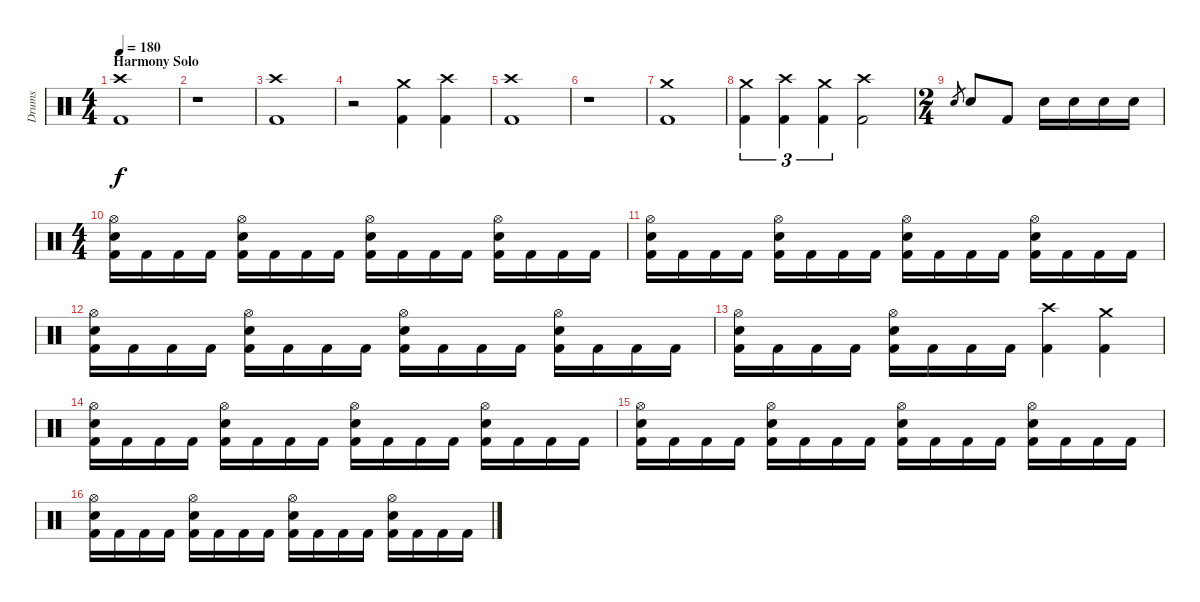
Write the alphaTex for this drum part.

\track ("Drums" "Drums") {instrument percussion}
\staff {score}
\articulation defaults
\ts (4 4)
\section ("" "Harmony Solo")
\tempo 180
\clef neutral
\ks c
("Crash high (hit)" "Kick (hit) 2").1{dy f} |
r.1 |
("Crash high (hit)" "Kick (hit) 2").1 |
r.2 ("Crash medium (hit)" "Kick (hit) 2").4 ("Crash high (hit)" "Kick (hit) 2").4 |
("Crash high (hit)" "Kick (hit) 2").1 |
r.1 |
("Crash medium (hit)" "Kick (hit) 2").1 |
("Crash medium (hit)" "Kick (hit) 2").4{tu (3 2)} ("Crash high (hit)" "Kick (hit) 2").4{tu (3 2)} ("Crash medium (hit)" "Kick (hit) 2").4{tu (3 2)} ("Crash high (hit)" "Kick (hit) 2").2 |
\ts (2 4)
"Electric Snare (hit)".8{gr} "Electric Snare (hit)".8 "Kick (hit) 2".8 "Electric Snare (hit)".16 "Electric Snare (hit)".16 "Electric Snare (hit)".16 "Electric Snare (hit)".16 |
\ts (4 4)
("Hi-Hat (open)" "Electric Snare (hit)" "Kick (hit) 2").16 "Kick (hit) 2".16 "Kick (hit) 2".16 "Kick (hit) 2".16 ("Hi-Hat (open)" "Electric Snare (hit)" "Kick (hit) 2").16 "Kick (hit) 2".16 "Kick (hit) 2".16 "Kick (hit) 2".16 ("Hi-Hat (open)" "Electric Snare (hit)" "Kick (hit) 2").16 "Kick (hit) 2".16 "Kick (hit) 2".16 "Kick (hit) 2".16 ("Hi-Hat (open)" "Electric Snare (hit)" "Kick (hit) 2").16 "Kick (hit) 2".16 "Kick (hit) 2".16 "Kick (hit) 2".16 |
("Hi-Hat (open)" "Electric Snare (hit)" "Kick (hit) 2").16 "Kick (hit) 2".16 "Kick (hit) 2".16 "Kick (hit) 2".16 ("Hi-Hat (open)" "Electric Snare (hit)" "Kick (hit) 2").16 "Kick (hit) 2".16 "Kick (hit) 2".16 "Kick (hit) 2".16 ("Hi-Hat (open)" "Electric Snare (hit)" "Kick (hit) 2").16 "Kick (hit) 2".16 "Kick (hit) 2".16 "Kick (hit) 2".16 ("Hi-Hat (open)" "Electric Snare (hit)" "Kick (hit) 2").16 "Kick (hit) 2".16 "Kick (hit) 2".16 "Kick (hit) 2".16 |
("Hi-Hat (open)" "Electric Snare (hit)" "Kick (hit) 2").16 "Kick (hit) 2".16 "Kick (hit) 2".16 "Kick (hit) 2".16 ("Hi-Hat (open)" "Electric Snare (hit)" "Kick (hit) 2").16 "Kick (hit) 2".16 "Kick (hit) 2".16 "Kick (hit) 2".16 ("Hi-Hat (open)" "Electric Snare (hit)" "Kick (hit) 2").16 "Kick (hit) 2".16 "Kick (hit) 2".16 "Kick (hit) 2".16 ("Hi-Hat (open)" "Electric Snare (hit)" "Kick (hit) 2").16 "Kick (hit) 2".16 "Kick (hit) 2".16 "Kick (hit) 2".16 |
("Hi-Hat (open)" "Electric Snare (hit)" "Kick (hit) 2").16 "Kick (hit) 2".16 "Kick (hit) 2".16 "Kick (hit) 2".16 ("Hi-Hat (open)" "Electric Snare (hit)" "Kick (hit) 2").16 "Kick (hit) 2".16 "Kick (hit) 2".16 "Kick (hit) 2".16 ("Crash high (hit)" "Kick (hit) 2").4 ("Crash medium (hit)" "Kick (hit) 2").4 |
("Hi-Hat (open)" "Electric Snare (hit)" "Kick (hit) 2").16 "Kick (hit) 2".16 "Kick (hit) 2".16 "Kick (hit) 2".16 ("Hi-Hat (open)" "Electric Snare (hit)" "Kick (hit) 2").16 "Kick (hit) 2".16 "Kick (hit) 2".16 "Kick (hit) 2".16 ("Hi-Hat (open)" "Electric Snare (hit)" "Kick (hit) 2").16 "Kick (hit) 2".16 "Kick (hit) 2".16 "Kick (hit) 2".16 ("Hi-Hat (open)" "Electric Snare (hit)" "Kick (hit) 2").16 "Kick (hit) 2".16 "Kick (hit) 2".16 "Kick (hit) 2".16 |
("Hi-Hat (open)" "Electric Snare (hit)" "Kick (hit) 2").16 "Kick (hit) 2".16 "Kick (hit) 2".16 "Kick (hit) 2".16 ("Hi-Hat (open)" "Electric Snare (hit)" "Kick (hit) 2").16 "Kick (hit) 2".16 "Kick (hit) 2".16 "Kick (hit) 2".16 ("Hi-Hat (open)" "Electric Snare (hit)" "Kick (hit) 2").16 "Kick (hit) 2".16 "Kick (hit) 2".16 "Kick (hit) 2".16 ("Hi-Hat (open)" "Electric Snare (hit)" "Kick (hit) 2").16 "Kick (hit) 2".16 "Kick (hit) 2".16 "Kick (hit) 2".16 |
("Hi-Hat (open)" "Electric Snare (hit)" "Kick (hit) 2").16 "Kick (hit) 2".16 "Kick (hit) 2".16 "Kick (hit) 2".16 ("Hi-Hat (open)" "Electric Snare (hit)" "Kick (hit) 2").16 "Kick (hit) 2".16 "Kick (hit) 2".16 "Kick (hit) 2".16 ("Hi-Hat (open)" "Electric Snare (hit)" "Kick (hit) 2").16 "Kick (hit) 2".16 "Kick (hit) 2".16 "Kick (hit) 2".16 ("Hi-Hat (open)" "Electric Snare (hit)" "Kick (hit) 2").16 "Kick (hit) 2".16 "Kick (hit) 2".16 "Kick (hit) 2".16
